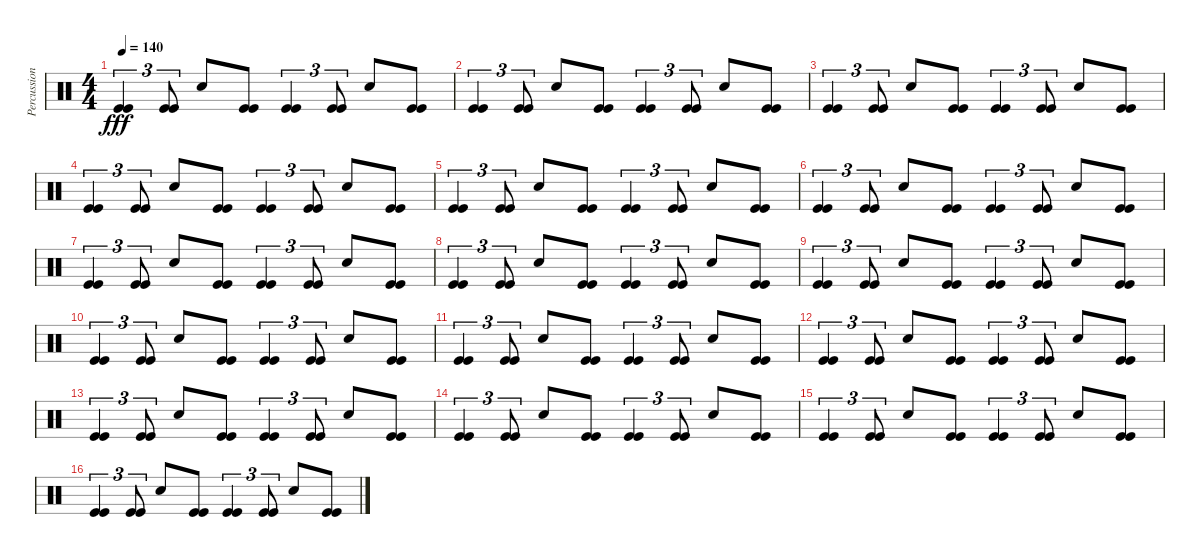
\track ("Percussions" "Percussion") {instrument percussion}
\staff {score}
\articulation defaults
\ts (4 4)
\tempo 140
\clef neutral
\ks c
("Kick (hit)" "Kick (hit)").4{tu (3 2) dy fff} ("Kick (hit)" "Kick (hit)").8{tu (3 2)} "Snare (hit) 2".8 ("Kick (hit)" "Kick (hit)").8 ("Kick (hit)" "Kick (hit)").4{tu (3 2)} ("Kick (hit)" "Kick (hit)").8{tu (3 2)} "Snare (hit) 2".8 ("Kick (hit)" "Kick (hit)").8 |
("Kick (hit)" "Kick (hit)").4{tu (3 2)} ("Kick (hit)" "Kick (hit)").8{tu (3 2)} "Snare (hit) 2".8 ("Kick (hit)" "Kick (hit)").8 ("Kick (hit)" "Kick (hit)").4{tu (3 2)} ("Kick (hit)" "Kick (hit)").8{tu (3 2)} "Snare (hit) 2".8 ("Kick (hit)" "Kick (hit)").8 |
("Kick (hit)" "Kick (hit)").4{tu (3 2)} ("Kick (hit)" "Kick (hit)").8{tu (3 2)} "Snare (hit) 2".8 ("Kick (hit)" "Kick (hit)").8 ("Kick (hit)" "Kick (hit)").4{tu (3 2)} ("Kick (hit)" "Kick (hit)").8{tu (3 2)} "Snare (hit) 2".8 ("Kick (hit)" "Kick (hit)").8 |
("Kick (hit)" "Kick (hit)").4{tu (3 2)} ("Kick (hit)" "Kick (hit)").8{tu (3 2)} "Snare (hit) 2".8 ("Kick (hit)" "Kick (hit)").8 ("Kick (hit)" "Kick (hit)").4{tu (3 2)} ("Kick (hit)" "Kick (hit)").8{tu (3 2)} "Snare (hit) 2".8 ("Kick (hit)" "Kick (hit)").8 |
("Kick (hit)" "Kick (hit)").4{tu (3 2)} ("Kick (hit)" "Kick (hit)").8{tu (3 2)} "Snare (hit) 2".8 ("Kick (hit)" "Kick (hit)").8 ("Kick (hit)" "Kick (hit)").4{tu (3 2)} ("Kick (hit)" "Kick (hit)").8{tu (3 2)} "Snare (hit) 2".8 ("Kick (hit)" "Kick (hit)").8 |
("Kick (hit)" "Kick (hit)").4{tu (3 2)} ("Kick (hit)" "Kick (hit)").8{tu (3 2)} "Snare (hit) 2".8 ("Kick (hit)" "Kick (hit)").8 ("Kick (hit)" "Kick (hit)").4{tu (3 2)} ("Kick (hit)" "Kick (hit)").8{tu (3 2)} "Snare (hit) 2".8 ("Kick (hit)" "Kick (hit)").8 |
("Kick (hit)" "Kick (hit)").4{tu (3 2)} ("Kick (hit)" "Kick (hit)").8{tu (3 2)} "Snare (hit) 2".8 ("Kick (hit)" "Kick (hit)").8 ("Kick (hit)" "Kick (hit)").4{tu (3 2)} ("Kick (hit)" "Kick (hit)").8{tu (3 2)} "Snare (hit) 2".8 ("Kick (hit)" "Kick (hit)").8 |
("Kick (hit)" "Kick (hit)").4{tu (3 2)} ("Kick (hit)" "Kick (hit)").8{tu (3 2)} "Snare (hit) 2".8 ("Kick (hit)" "Kick (hit)").8 ("Kick (hit)" "Kick (hit)").4{tu (3 2)} ("Kick (hit)" "Kick (hit)").8{tu (3 2)} "Snare (hit) 2".8 ("Kick (hit)" "Kick (hit)").8 |
("Kick (hit)" "Kick (hit)").4{tu (3 2)} ("Kick (hit)" "Kick (hit)").8{tu (3 2)} "Snare (hit) 2".8 ("Kick (hit)" "Kick (hit)").8 ("Kick (hit)" "Kick (hit)").4{tu (3 2)} ("Kick (hit)" "Kick (hit)").8{tu (3 2)} "Snare (hit) 2".8 ("Kick (hit)" "Kick (hit)").8 |
("Kick (hit)" "Kick (hit)").4{tu (3 2)} ("Kick (hit)" "Kick (hit)").8{tu (3 2)} "Snare (hit) 2".8 ("Kick (hit)" "Kick (hit)").8 ("Kick (hit)" "Kick (hit)").4{tu (3 2)} ("Kick (hit)" "Kick (hit)").8{tu (3 2)} "Snare (hit) 2".8 ("Kick (hit)" "Kick (hit)").8 |
("Kick (hit)" "Kick (hit)").4{tu (3 2)} ("Kick (hit)" "Kick (hit)").8{tu (3 2)} "Snare (hit) 2".8 ("Kick (hit)" "Kick (hit)").8 ("Kick (hit)" "Kick (hit)").4{tu (3 2)} ("Kick (hit)" "Kick (hit)").8{tu (3 2)} "Snare (hit) 2".8 ("Kick (hit)" "Kick (hit)").8 |
("Kick (hit)" "Kick (hit)").4{tu (3 2)} ("Kick (hit)" "Kick (hit)").8{tu (3 2)} "Snare (hit) 2".8 ("Kick (hit)" "Kick (hit)").8 ("Kick (hit)" "Kick (hit)").4{tu (3 2)} ("Kick (hit)" "Kick (hit)").8{tu (3 2)} "Snare (hit) 2".8 ("Kick (hit)" "Kick (hit)").8 |
("Kick (hit)" "Kick (hit)").4{tu (3 2)} ("Kick (hit)" "Kick (hit)").8{tu (3 2)} "Snare (hit) 2".8 ("Kick (hit)" "Kick (hit)").8 ("Kick (hit)" "Kick (hit)").4{tu (3 2)} ("Kick (hit)" "Kick (hit)").8{tu (3 2)} "Snare (hit) 2".8 ("Kick (hit)" "Kick (hit)").8 |
("Kick (hit)" "Kick (hit)").4{tu (3 2)} ("Kick (hit)" "Kick (hit)").8{tu (3 2)} "Snare (hit) 2".8 ("Kick (hit)" "Kick (hit)").8 ("Kick (hit)" "Kick (hit)").4{tu (3 2)} ("Kick (hit)" "Kick (hit)").8{tu (3 2)} "Snare (hit) 2".8 ("Kick (hit)" "Kick (hit)").8 |
("Kick (hit)" "Kick (hit)").4{tu (3 2)} ("Kick (hit)" "Kick (hit)").8{tu (3 2)} "Snare (hit) 2".8 ("Kick (hit)" "Kick (hit)").8 ("Kick (hit)" "Kick (hit)").4{tu (3 2)} ("Kick (hit)" "Kick (hit)").8{tu (3 2)} "Snare (hit) 2".8 ("Kick (hit)" "Kick (hit)").8 |
("Kick (hit)" "Kick (hit)").4{tu (3 2)} ("Kick (hit)" "Kick (hit)").8{tu (3 2)} "Snare (hit) 2".8 ("Kick (hit)" "Kick (hit)").8 ("Kick (hit)" "Kick (hit)").4{tu (3 2)} ("Kick (hit)" "Kick (hit)").8{tu (3 2)} "Snare (hit) 2".8 ("Kick (hit)" "Kick (hit)").8
